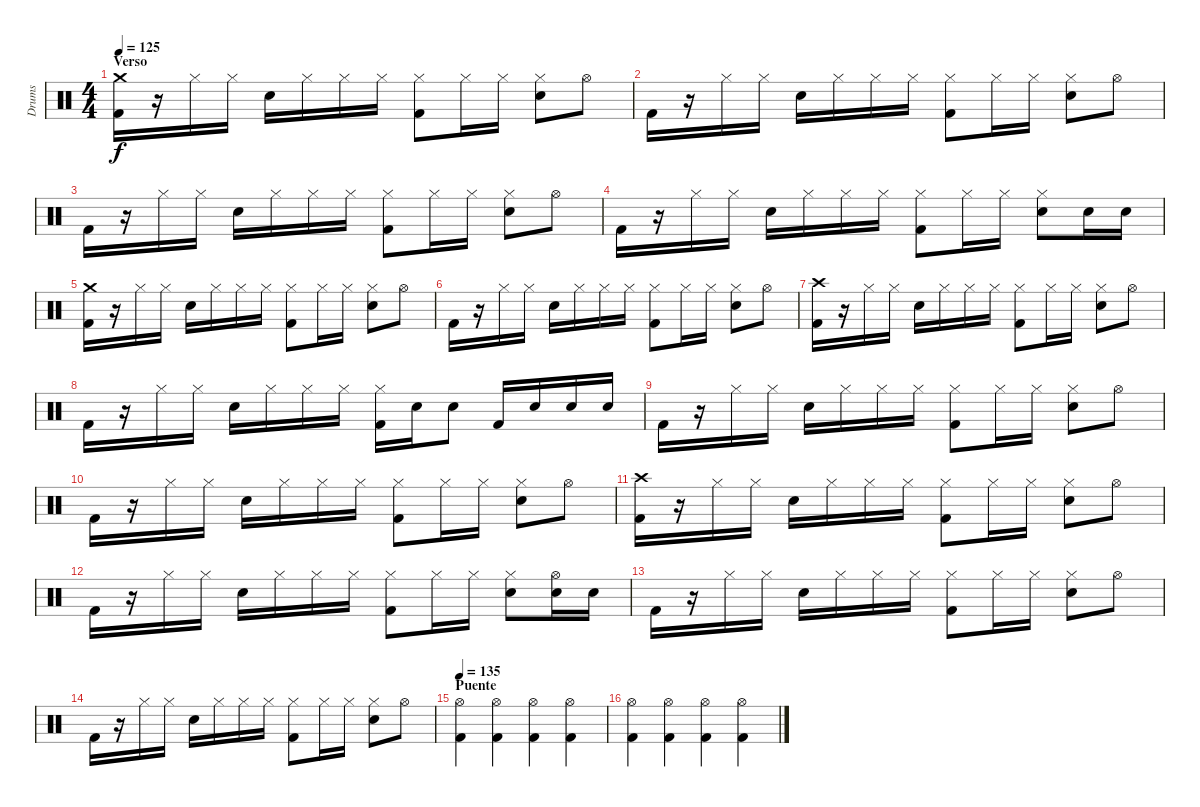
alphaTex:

\track ("Drums" "Drums") {instrument percussion}
\staff {score}
\articulation defaults
\ts (4 4)
\section ("" "Verso")
\tempo 125
\clef neutral
\ks c
("Crash medium (hit)" "Kick (hit) 2").16{dy f} r.16 "Hi-Hat (closed)".16 "Hi-Hat (closed)".16 "Electric Snare (hit)".16 "Hi-Hat (closed)".16 "Hi-Hat (closed)".16 "Hi-Hat (closed)".16 ("Hi-Hat (closed)" "Kick (hit) 2").8 "Hi-Hat (closed)".16 "Hi-Hat (closed)".16 ("Hi-Hat (closed)" "Electric Snare (hit)").8 "Hi-Hat (open)".8 |
"Kick (hit) 2".16 r.16 "Hi-Hat (closed)".16 "Hi-Hat (closed)".16 "Electric Snare (hit)".16 "Hi-Hat (closed)".16 "Hi-Hat (closed)".16 "Hi-Hat (closed)".16 ("Hi-Hat (closed)" "Kick (hit) 2").8 "Hi-Hat (closed)".16 "Hi-Hat (closed)".16 ("Hi-Hat (closed)" "Electric Snare (hit)").8 "Hi-Hat (open)".8 |
"Kick (hit) 2".16 r.16 "Hi-Hat (closed)".16 "Hi-Hat (closed)".16 "Electric Snare (hit)".16 "Hi-Hat (closed)".16 "Hi-Hat (closed)".16 "Hi-Hat (closed)".16 ("Hi-Hat (closed)" "Kick (hit) 2").8 "Hi-Hat (closed)".16 "Hi-Hat (closed)".16 ("Hi-Hat (closed)" "Electric Snare (hit)").8 "Hi-Hat (open)".8 |
"Kick (hit) 2".16 r.16 "Hi-Hat (closed)".16 "Hi-Hat (closed)".16 "Electric Snare (hit)".16 "Hi-Hat (closed)".16 "Hi-Hat (closed)".16 "Hi-Hat (closed)".16 ("Hi-Hat (closed)" "Kick (hit) 2").8 "Hi-Hat (closed)".16 "Hi-Hat (closed)".16 ("Hi-Hat (closed)" "Electric Snare (hit)").8 "Electric Snare (hit)".16 "Electric Snare (hit)".16 |
("Crash medium (hit)" "Kick (hit) 2").16 r.16 "Hi-Hat (closed)".16 "Hi-Hat (closed)".16 "Electric Snare (hit)".16 "Hi-Hat (closed)".16 "Hi-Hat (closed)".16 "Hi-Hat (closed)".16 ("Hi-Hat (closed)" "Kick (hit) 2").8 "Hi-Hat (closed)".16 "Hi-Hat (closed)".16 ("Hi-Hat (closed)" "Electric Snare (hit)").8 "Hi-Hat (open)".8 |
"Kick (hit) 2".16 r.16 "Hi-Hat (closed)".16 "Hi-Hat (closed)".16 "Electric Snare (hit)".16 "Hi-Hat (closed)".16 "Hi-Hat (closed)".16 "Hi-Hat (closed)".16 ("Hi-Hat (closed)" "Kick (hit) 2").8 "Hi-Hat (closed)".16 "Hi-Hat (closed)".16 ("Hi-Hat (closed)" "Electric Snare (hit)").8 "Hi-Hat (open)".8 |
("Crash high (hit)" "Kick (hit) 2").16 r.16 "Hi-Hat (closed)".16 "Hi-Hat (closed)".16 "Electric Snare (hit)".16 "Hi-Hat (closed)".16 "Hi-Hat (closed)".16 "Hi-Hat (closed)".16 ("Hi-Hat (closed)" "Kick (hit) 2").8 "Hi-Hat (closed)".16 "Hi-Hat (closed)".16 ("Hi-Hat (closed)" "Electric Snare (hit)").8 "Hi-Hat (open)".8 |
"Kick (hit) 2".16 r.16 "Hi-Hat (closed)".16 "Hi-Hat (closed)".16 "Electric Snare (hit)".16 "Hi-Hat (closed)".16 "Hi-Hat (closed)".16 "Hi-Hat (closed)".16 ("Hi-Hat (closed)" "Kick (hit) 2").16 "Electric Snare (hit)".16 "Electric Snare (hit)".8 "Kick (hit) 2".16 "Electric Snare (hit)".16 "Electric Snare (hit)".16 "Electric Snare (hit)".16 |
"Kick (hit) 2".16 r.16 "Hi-Hat (closed)".16 "Hi-Hat (closed)".16 "Electric Snare (hit)".16 "Hi-Hat (closed)".16 "Hi-Hat (closed)".16 "Hi-Hat (closed)".16 ("Hi-Hat (closed)" "Kick (hit) 2").8 "Hi-Hat (closed)".16 "Hi-Hat (closed)".16 ("Hi-Hat (closed)" "Electric Snare (hit)").8 "Hi-Hat (open)".8 |
"Kick (hit) 2".16 r.16 "Hi-Hat (closed)".16 "Hi-Hat (closed)".16 "Electric Snare (hit)".16 "Hi-Hat (closed)".16 "Hi-Hat (closed)".16 "Hi-Hat (closed)".16 ("Hi-Hat (closed)" "Kick (hit) 2").8 "Hi-Hat (closed)".16 "Hi-Hat (closed)".16 ("Hi-Hat (closed)" "Electric Snare (hit)").8 "Hi-Hat (open)".8 |
("Crash high (hit)" "Kick (hit) 2").16 r.16 "Hi-Hat (closed)".16 "Hi-Hat (closed)".16 "Electric Snare (hit)".16 "Hi-Hat (closed)".16 "Hi-Hat (closed)".16 "Hi-Hat (closed)".16 ("Hi-Hat (closed)" "Kick (hit) 2").8 "Hi-Hat (closed)".16 "Hi-Hat (closed)".16 ("Hi-Hat (closed)" "Electric Snare (hit)").8 "Hi-Hat (open)".8 |
"Kick (hit) 2".16 r.16 "Hi-Hat (closed)".16 "Hi-Hat (closed)".16 "Electric Snare (hit)".16 "Hi-Hat (closed)".16 "Hi-Hat (closed)".16 "Hi-Hat (closed)".16 ("Hi-Hat (closed)" "Kick (hit) 2").8 "Hi-Hat (closed)".16 "Hi-Hat (closed)".16 ("Hi-Hat (closed)" "Electric Snare (hit)").8 ("Hi-Hat (open)" "Electric Snare (hit)").16 "Electric Snare (hit)".16 |
"Kick (hit) 2".16 r.16 "Hi-Hat (closed)".16 "Hi-Hat (closed)".16 "Electric Snare (hit)".16 "Hi-Hat (closed)".16 "Hi-Hat (closed)".16 "Hi-Hat (closed)".16 ("Hi-Hat (closed)" "Kick (hit) 2").8 "Hi-Hat (closed)".16 "Hi-Hat (closed)".16 ("Hi-Hat (closed)" "Electric Snare (hit)").8 "Hi-Hat (open)".8 |
"Kick (hit) 2".16 r.16 "Hi-Hat (closed)".16 "Hi-Hat (closed)".16 "Electric Snare (hit)".16 "Hi-Hat (closed)".16 "Hi-Hat (closed)".16 "Hi-Hat (closed)".16 ("Hi-Hat (closed)" "Kick (hit) 2").8 "Hi-Hat (closed)".16 "Hi-Hat (closed)".16 ("Hi-Hat (closed)" "Electric Snare (hit)").8 "Hi-Hat (open)".8 |
\section ("" "Puente")
\tempo 135
("Hi-Hat (open)" "Kick (hit) 2").4 ("Hi-Hat (open)" "Kick (hit) 2").4 ("Hi-Hat (open)" "Kick (hit) 2").4 ("Hi-Hat (open)" "Kick (hit) 2").4 |
("Hi-Hat (open)" "Kick (hit) 2").4 ("Hi-Hat (open)" "Kick (hit) 2").4 ("Hi-Hat (open)" "Kick (hit) 2").4 ("Hi-Hat (open)" "Kick (hit) 2").4
